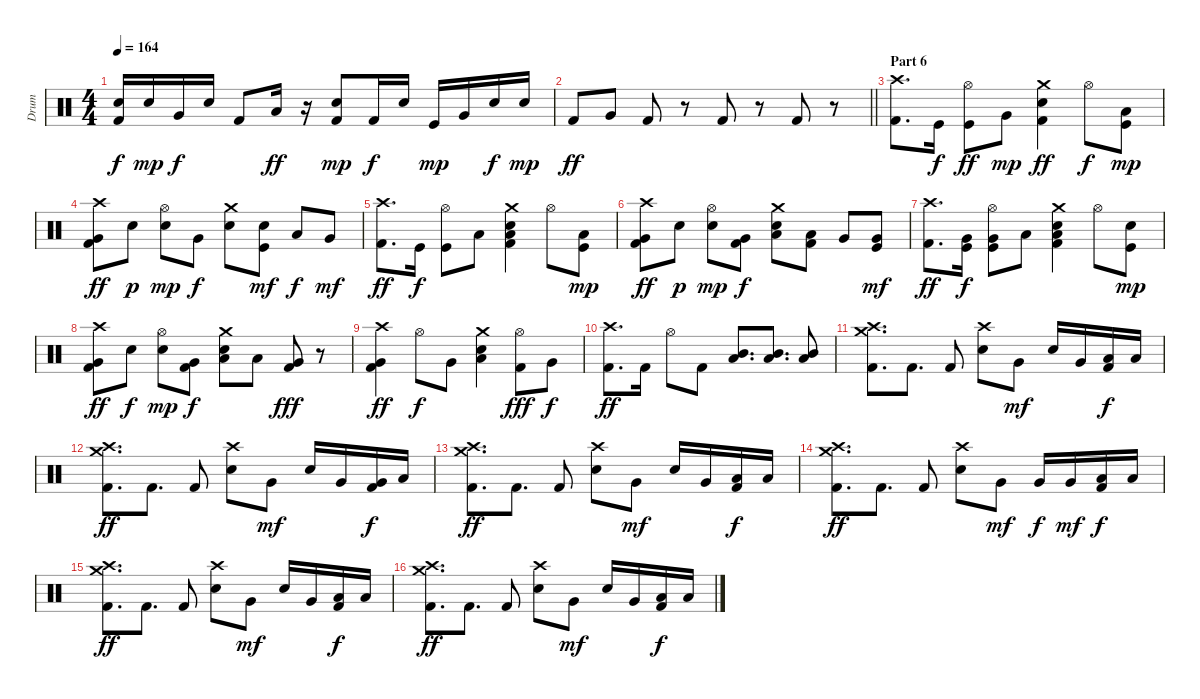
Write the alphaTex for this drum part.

\track ("Drum" "Drum") {instrument percussion}
\staff {score}
\articulation defaults
\ts (4 4)
\tempo 164
\clef neutral
\ks c
("Electric Snare (hit)" "Kick (hit) 2").16{dy f} "Electric Snare (hit)".16{dy mp} "Very Low Tom (hit)".16{dy f} "Electric Snare (hit)".16 "Kick (hit) 2".8 "Low Tom (hit)".16{dy ff} r.16 ("Electric Snare (hit)" "Kick (hit) 2").8{dy mp} "Kick (hit) 2".16{dy f} "Electric Snare (hit)".16 "Kick (hit)".16{dy mp} "Very Low Tom (hit)".16 "Electric Snare (hit)".16{dy f} "Electric Snare (hit)".16{dy mp} |
\barLineRight lightlight "Kick (hit) 2".8{dy ff} "Very Low Tom (hit)".8 "Kick (hit) 2".8
r.8 "Kick (hit) 2".8 r.8 "Kick (hit) 2".8 r.8 |
\section ("" "Part 6")
("Crash high (hit)" "Kick (hit) 2").8{d} "Kick (hit)".16{dy f} ("Hi-Hat (open)" "Kick (hit)").8{dy ff} "Very Low Tom (hit)".8{dy mp} ("Crash medium (hit)" "Electric Snare (hit)" "Kick (hit) 2").4{dy ff} "Hi-Hat (open)".8{dy f} ("Low Tom (hit)" "Kick (hit)").8{dy mp} |
("Crash high (hit)" "Very Low Tom (hit)" "Kick (hit) 2").8{dy ff} "Electric Snare (hit)".8{dy p} ("Hi-Hat (open)" "Electric Snare (hit)").8{dy mp} "Very Low Tom (hit)".8{dy f} ("Crash medium (hit)" "Electric Snare (hit)").8 ("Electric Snare (hit)" "Kick (hit)").8{dy mf} "Low Tom (hit)".8{dy f} "Very Low Tom (hit)".8{dy mf} |
("Crash high (hit)" "Kick (hit) 2").8{d dy ff} "Kick (hit)".16{dy f} ("Hi-Hat (open)" "Kick (hit)").8 "Low Tom (hit)".8 ("Crash medium (hit)" "Low Tom (hit)" "Electric Snare (hit)" "Kick (hit) 2").4 "Hi-Hat (open)".8 ("Low Tom (hit)" "Kick (hit)").8{dy mp} |
("Crash high (hit)" "Very Low Tom (hit)" "Kick (hit) 2").8{dy ff} "Electric Snare (hit)".8{dy p} ("Hi-Hat (open)" "Electric Snare (hit)").8{dy mp} ("Very Low Tom (hit)" "Kick (hit) 2").8{dy f} ("Crash medium (hit)" "Electric Snare (hit)" "Low Tom (hit)").8 ("Low Tom (hit)" "Kick (hit) 2").8 "Very Low Tom (hit)".8 ("Very Low Tom (hit)" "Kick (hit)").8{dy mf} |
("Crash high (hit)" "Kick (hit) 2").8{d dy ff} ("Very Low Tom (hit)" "Kick (hit)").16{dy f} ("Hi-Hat (open)" "Very Low Tom (hit)" "Kick (hit)").8 "Low Tom (hit)".8 ("Crash medium (hit)" "Low Tom (hit)" "Electric Snare (hit)" "Kick (hit) 2").4 "Hi-Hat (open)".8 ("Electric Snare (hit)" "Kick (hit)").8{dy mp} |
("Crash high (hit)" "Very Low Tom (hit)" "Kick (hit) 2").8{dy ff} "Electric Snare (hit)".8{dy f} ("Hi-Hat (open)" "Electric Snare (hit)").8{dy mp} ("Very Low Tom (hit)" "Kick (hit) 2").8{dy f} ("Crash medium (hit)" "Electric Snare (hit)" "Low Tom (hit)").8 "Low Tom (hit)".8 ("Very Low Tom (hit)" "Kick (hit) 2").8{dy fff} r.8 |
("Crash high (hit)" "Very Low Tom (hit)" "Kick (hit) 2").4{dy ff} "Hi-Hat (open)".8{dy f} "Very Low Tom (hit)".8 ("Crash medium (hit)" "Electric Snare (hit)" "Low Tom (hit)").4 ("Hi-Hat (open)" "Kick (hit) 2").8{dy fff} "Very Low Tom (hit)".8{dy f} |
("Crash high (hit)" "Kick (hit) 2").8{d dy ff} "Kick (hit) 2".16 "Hi-Hat (open)".8 "Kick (hit) 2".8 ("Low Tom (hit)" "Mid Tom (hit)").8{d} ("Low Tom (hit)" "Mid Tom (hit)").8{d} ("Low Tom (hit)" "Mid Tom (hit)").8 |
("Crash high (hit)" "Crash medium (hit)" "Kick (hit) 2").8{d} "Kick (hit) 2".8{d} "Kick (hit) 2".8 ("Crash high (hit)" "Electric Snare (hit)").8 "Very Low Tom (hit)".8{dy mf} "Electric Snare (hit)".16 "Very Low Tom (hit)".16 ("Low Tom (hit)" "Kick (hit) 2").16{dy f} "Low Tom (hit)".16 |
("Crash high (hit)" "Crash medium (hit)" "Kick (hit) 2").8{d dy ff} "Kick (hit) 2".8{d} "Kick (hit) 2".8 ("Crash high (hit)" "Electric Snare (hit)").8 "Very Low Tom (hit)".8{dy mf} "Electric Snare (hit)".16 "Very Low Tom (hit)".16 ("Very Low Tom (hit)" "Kick (hit) 2").16{dy f} "Low Tom (hit)".16 |
("Crash high (hit)" "Crash medium (hit)" "Kick (hit) 2").8{d dy ff} "Kick (hit) 2".8{d} "Kick (hit) 2".8 ("Crash high (hit)" "Electric Snare (hit)").8 "Very Low Tom (hit)".8{dy mf} "Electric Snare (hit)".16 "Very Low Tom (hit)".16 ("Low Tom (hit)" "Kick (hit) 2").16{dy f} "Low Tom (hit)".16 |
("Crash high (hit)" "Crash medium (hit)" "Kick (hit) 2").8{d dy ff} "Kick (hit) 2".8{d} "Kick (hit) 2".8 ("Crash high (hit)" "Electric Snare (hit)").8 "Very Low Tom (hit)".8{dy mf} "Very Low Tom (hit)".16{dy f} "Very Low Tom (hit)".16{dy mf} ("Low Tom (hit)" "Kick (hit) 2").16{dy f} "Low Tom (hit)".16 |
("Crash high (hit)" "Crash medium (hit)" "Kick (hit) 2").8{d dy ff} "Kick (hit) 2".8{d} "Kick (hit) 2".8 ("Crash high (hit)" "Electric Snare (hit)").8 "Very Low Tom (hit)".8{dy mf} "Electric Snare (hit)".16 "Very Low Tom (hit)".16 ("Low Tom (hit)" "Kick (hit) 2").16{dy f} "Low Tom (hit)".16 |
("Crash high (hit)" "Crash medium (hit)" "Kick (hit) 2").8{d dy ff} "Kick (hit) 2".8{d} "Kick (hit) 2".8 ("Crash high (hit)" "Electric Snare (hit)").8 "Very Low Tom (hit)".8{dy mf} "Electric Snare (hit)".16 "Very Low Tom (hit)".16 ("Low Tom (hit)" "Kick (hit) 2").16{dy f} "Low Tom (hit)".16
